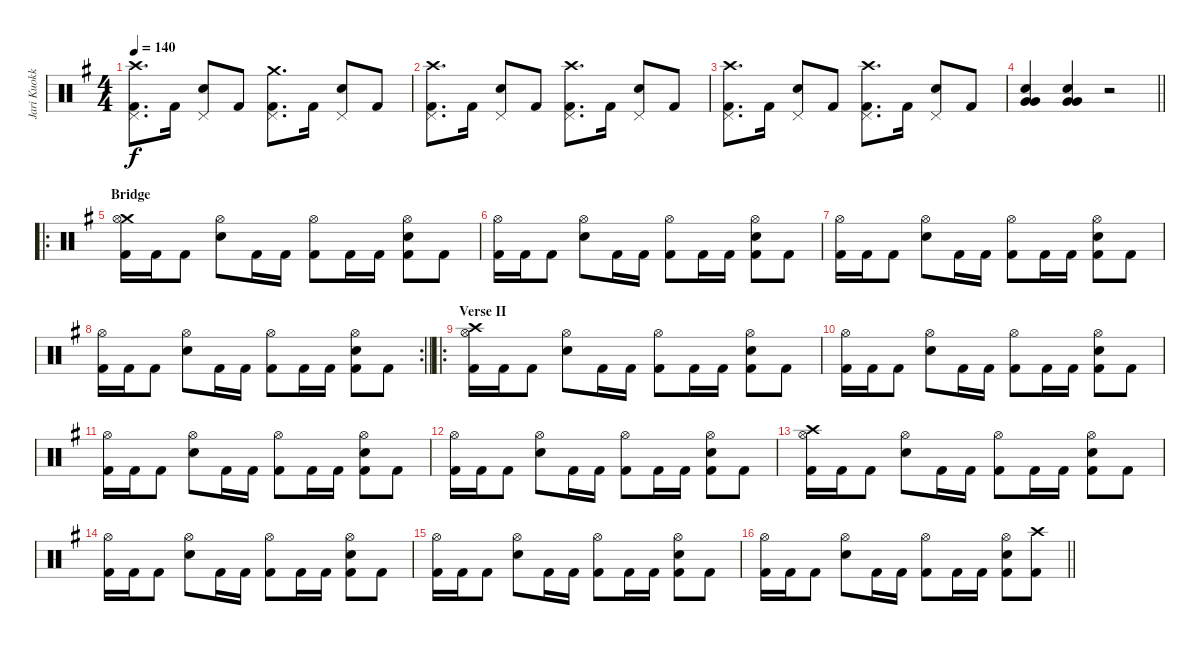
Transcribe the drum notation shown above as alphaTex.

\track ("Jari Kuokkanen" "Jari Kuokk") {instrument percussion}
\staff {score}
\articulation defaults
\ts (4 4)
\tempo 140
\clef neutral
\ks eminor
("Crash high (hit)" "Pedal Hi-Hat (hit)" "Kick (hit) 2").8{d dy f} "Kick (hit) 2".16 ("Pedal Hi-Hat (hit)" "Snare (hit) 2").8 "Kick (hit) 2".8 ("Crash medium (hit)" "Pedal Hi-Hat (hit)" "Kick (hit) 2").8{d} "Kick (hit) 2".16 ("Pedal Hi-Hat (hit)" "Snare (hit) 2").8 "Kick (hit) 2".8 |
("Crash high (hit)" "Pedal Hi-Hat (hit)" "Kick (hit) 2").8{d} "Kick (hit) 2".16 ("Pedal Hi-Hat (hit)" "Snare (hit) 2").8 "Kick (hit) 2".8 ("Crash high (hit)" "Pedal Hi-Hat (hit)" "Kick (hit) 2").8{d} "Kick (hit) 2".16 ("Pedal Hi-Hat (hit)" "Snare (hit) 2").8 "Kick (hit) 2".8 |
("Crash high (hit)" "Pedal Hi-Hat (hit)" "Kick (hit) 2").8{d} "Kick (hit) 2".16 ("Pedal Hi-Hat (hit)" "Snare (hit) 2").8 "Kick (hit) 2".8 ("Crash high (hit)" "Pedal Hi-Hat (hit)" "Kick (hit) 2").8{d} "Kick (hit) 2".16 ("Pedal Hi-Hat (hit)" "Snare (hit) 2").8 "Kick (hit) 2".8 |
\barLineRight lightlight
("Snare (hit) 2" "Very Low Tom (hit)" "Very Low Tom (hit)").4 ("Snare (hit) 2" "Very Low Tom (hit)" "Very Low Tom (hit)").4 r.2 |
\ro
\section ("" "Bridge")
("Crash medium (hit)" "Hi-Hat (open)" "Kick (hit) 2").16 "Kick (hit) 2".16 "Kick (hit) 2".8 ("Hi-Hat (open)" "Snare (hit) 2").8 "Kick (hit) 2".16 "Kick (hit) 2".16 ("Hi-Hat (open)" "Kick (hit) 2").8 "Kick (hit) 2".16 "Kick (hit) 2".16 ("Hi-Hat (open)" "Snare (hit) 2" "Kick (hit) 2").8 "Kick (hit) 2".8 |
("Hi-Hat (open)" "Kick (hit) 2").16 "Kick (hit) 2".16 "Kick (hit) 2".8 ("Hi-Hat (open)" "Snare (hit) 2").8 "Kick (hit) 2".16 "Kick (hit) 2".16 ("Hi-Hat (open)" "Kick (hit) 2").8 "Kick (hit) 2".16 "Kick (hit) 2".16 ("Hi-Hat (open)" "Snare (hit) 2" "Kick (hit) 2").8 "Kick (hit) 2".8 |
("Hi-Hat (open)" "Kick (hit) 2").16 "Kick (hit) 2".16 "Kick (hit) 2".8 ("Hi-Hat (open)" "Snare (hit) 2").8 "Kick (hit) 2".16 "Kick (hit) 2".16 ("Hi-Hat (open)" "Kick (hit) 2").8 "Kick (hit) 2".16 "Kick (hit) 2".16 ("Hi-Hat (open)" "Snare (hit) 2" "Kick (hit) 2").8 "Kick (hit) 2".8 |
\rc 2
\barLineRight lightlight
("Hi-Hat (open)" "Kick (hit) 2").16 "Kick (hit) 2".16 "Kick (hit) 2".8 ("Hi-Hat (open)" "Snare (hit) 2").8 "Kick (hit) 2".16 "Kick (hit) 2".16 ("Hi-Hat (open)" "Kick (hit) 2").8 "Kick (hit) 2".16 "Kick (hit) 2".16 ("Hi-Hat (open)" "Snare (hit) 2" "Kick (hit) 2").8 "Kick (hit) 2".8 |
\ro
\section ("" "Verse II")
("Crash high (hit)" "Hi-Hat (open)" "Kick (hit) 2").16 "Kick (hit) 2".16 "Kick (hit) 2".8 ("Hi-Hat (open)" "Snare (hit) 2").8 "Kick (hit) 2".16 "Kick (hit) 2".16 ("Hi-Hat (open)" "Kick (hit) 2").8 "Kick (hit) 2".16 "Kick (hit) 2".16 ("Hi-Hat (open)" "Snare (hit) 2" "Kick (hit) 2").8 "Kick (hit) 2".8 |
("Hi-Hat (open)" "Kick (hit) 2").16 "Kick (hit) 2".16 "Kick (hit) 2".8 ("Hi-Hat (open)" "Snare (hit) 2").8 "Kick (hit) 2".16 "Kick (hit) 2".16 ("Hi-Hat (open)" "Kick (hit) 2").8 "Kick (hit) 2".16 "Kick (hit) 2".16 ("Hi-Hat (open)" "Snare (hit) 2" "Kick (hit) 2").8 "Kick (hit) 2".8 |
("Hi-Hat (open)" "Kick (hit) 2").16 "Kick (hit) 2".16 "Kick (hit) 2".8 ("Hi-Hat (open)" "Snare (hit) 2").8 "Kick (hit) 2".16 "Kick (hit) 2".16 ("Hi-Hat (open)" "Kick (hit) 2").8 "Kick (hit) 2".16 "Kick (hit) 2".16 ("Hi-Hat (open)" "Snare (hit) 2" "Kick (hit) 2").8 "Kick (hit) 2".8 |
("Hi-Hat (open)" "Kick (hit) 2").16 "Kick (hit) 2".16 "Kick (hit) 2".8 ("Hi-Hat (open)" "Snare (hit) 2").8 "Kick (hit) 2".16 "Kick (hit) 2".16 ("Hi-Hat (open)" "Kick (hit) 2").8 "Kick (hit) 2".16 "Kick (hit) 2".16 ("Hi-Hat (open)" "Snare (hit) 2" "Kick (hit) 2").8 "Kick (hit) 2".8 |
("Crash high (hit)" "Hi-Hat (open)" "Kick (hit) 2").16 "Kick (hit) 2".16 "Kick (hit) 2".8 ("Hi-Hat (open)" "Snare (hit) 2").8 "Kick (hit) 2".16 "Kick (hit) 2".16 ("Hi-Hat (open)" "Kick (hit) 2").8 "Kick (hit) 2".16 "Kick (hit) 2".16 ("Hi-Hat (open)" "Snare (hit) 2" "Kick (hit) 2").8 "Kick (hit) 2".8 |
("Hi-Hat (open)" "Kick (hit) 2").16 "Kick (hit) 2".16 "Kick (hit) 2".8 ("Hi-Hat (open)" "Snare (hit) 2").8 "Kick (hit) 2".16 "Kick (hit) 2".16 ("Hi-Hat (open)" "Kick (hit) 2").8 "Kick (hit) 2".16 "Kick (hit) 2".16 ("Hi-Hat (open)" "Snare (hit) 2" "Kick (hit) 2").8 "Kick (hit) 2".8 |
("Hi-Hat (open)" "Kick (hit) 2").16 "Kick (hit) 2".16 "Kick (hit) 2".8 ("Hi-Hat (open)" "Snare (hit) 2").8 "Kick (hit) 2".16 "Kick (hit) 2".16 ("Hi-Hat (open)" "Kick (hit) 2").8 "Kick (hit) 2".16 "Kick (hit) 2".16 ("Hi-Hat (open)" "Snare (hit) 2" "Kick (hit) 2").8 "Kick (hit) 2".8 |
\barLineRight lightlight
("Hi-Hat (open)" "Kick (hit) 2").16 "Kick (hit) 2".16 "Kick (hit) 2".8 ("Hi-Hat (open)" "Snare (hit) 2").8 "Kick (hit) 2".16 "Kick (hit) 2".16 ("Hi-Hat (open)" "Kick (hit) 2").8 "Kick (hit) 2".16 "Kick (hit) 2".16 ("Hi-Hat (open)" "Snare (hit) 2" "Kick (hit) 2").8 ("Crash high (hit)" "Kick (hit) 2").8
